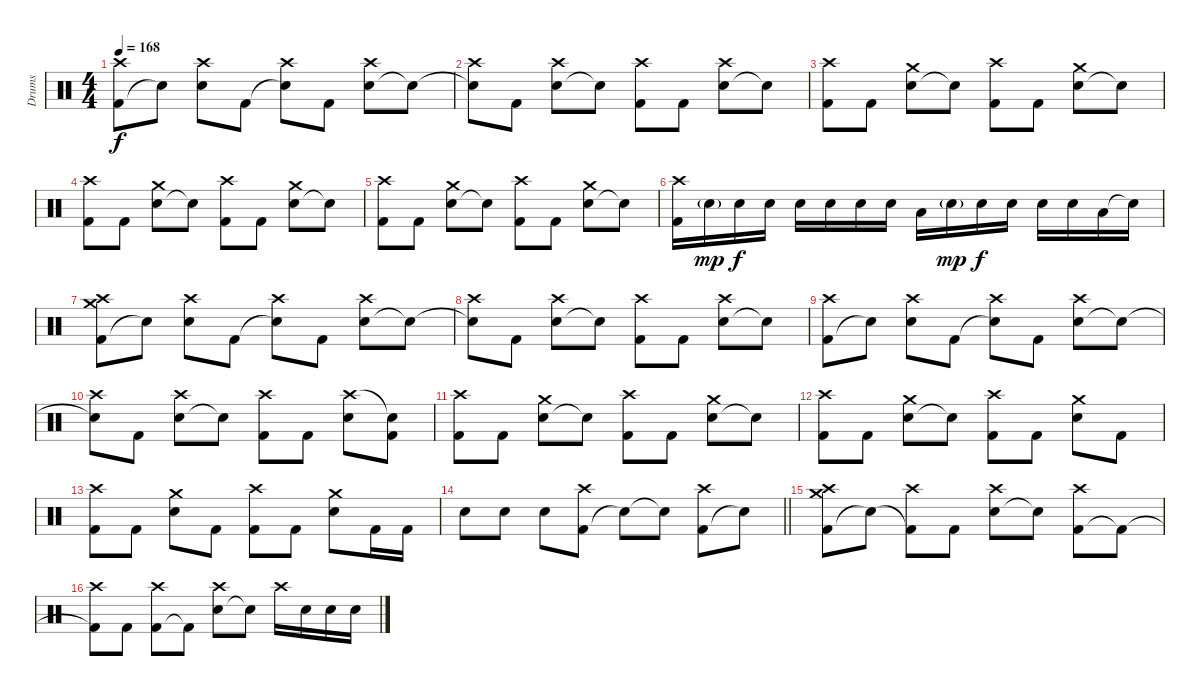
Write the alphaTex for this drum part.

\track ("Drums" "Drums") {instrument percussion}
\staff {score}
\articulation defaults
\ts (4 4)
\tempo 168
\clef neutral
\ks c
("Kick (hit) 2" "Crash high (hit)").8{dy f} "Snare (hit)"{t}.8 ("Electric Snare (hit)" "Crash high (hit)").8 "Kick (hit) 2".8 ("Snare (hit)"{t} "Crash high (hit)").8 "Kick (hit) 2".8 ("Electric Snare (hit)" "Crash high (hit)").8 "Snare (hit)"{t}.8 |
("Snare (hit)"{t} "Crash high (hit)").8 "Kick (hit) 2".8 ("Electric Snare (hit)" "Crash high (hit)").8 "Snare (hit)"{t}.8 ("Kick (hit) 2" "Crash high (hit)").8 "Kick (hit) 2".8 ("Electric Snare (hit)" "Crash high (hit)").8 "Snare (hit)"{t}.8 |
("Kick (hit) 2" "Crash high (hit)").8 "Kick (hit) 2".8 ("Electric Snare (hit)" "Crash medium (hit)").8 "Snare (hit)"{t}.8 ("Kick (hit) 2" "Crash high (hit)").8 "Kick (hit) 2".8 ("Electric Snare (hit)" "Crash medium (hit)").8 "Snare (hit)"{t}.8 |
("Kick (hit) 2" "Crash high (hit)").8 "Kick (hit) 2".8 ("Electric Snare (hit)" "Crash medium (hit)").8 "Snare (hit)"{t}.8 ("Kick (hit) 2" "Crash high (hit)").8 "Kick (hit) 2".8 ("Electric Snare (hit)" "Crash medium (hit)").8 "Snare (hit)"{t}.8 |
("Kick (hit) 2" "Crash high (hit)").8 "Kick (hit) 2".8 ("Electric Snare (hit)" "Crash medium (hit)").8 "Snare (hit)"{t}.8 ("Kick (hit) 2" "Crash high (hit)").8 "Kick (hit) 2".8 ("Electric Snare (hit)" "Crash medium (hit)").8 "Snare (hit)"{t}.8 |
("Kick (hit) 2" "Crash high (hit)").16 "Electric Snare (hit)"{g}.16{dy mp} "Electric Snare (hit)".16{dy f} "Electric Snare (hit)".16 "Electric Snare (hit)".16 "Electric Snare (hit)".16 "Electric Snare (hit)".16 "Electric Snare (hit)".16 "Low Tom (hit)".16 "Electric Snare (hit)"{g}.16{dy mp} "Electric Snare (hit)".16{dy f} "Electric Snare (hit)".16 "Electric Snare (hit)".16 "Electric Snare (hit)".16 "Low Floor Tom (hit)".16 "Electric Snare (hit)"{t}.16 |
("Kick (hit) 2" "Crash medium (hit)" "Crash high (hit)").8 "Snare (hit)"{t}.8 ("Electric Snare (hit)" "Crash high (hit)").8 "Kick (hit) 2".8 ("Snare (hit)"{t} "Crash high (hit)").8 "Kick (hit) 2".8 ("Electric Snare (hit)" "Crash high (hit)").8 "Snare (hit)"{t}.8 |
("Snare (hit)"{t} "Crash high (hit)").8 "Kick (hit) 2".8 ("Electric Snare (hit)" "Crash high (hit)").8 "Snare (hit)"{t}.8 ("Kick (hit) 2" "Crash high (hit)").8 "Kick (hit) 2".8 ("Electric Snare (hit)" "Crash high (hit)").8 "Snare (hit)"{t}.8 |
("Kick (hit) 2" "Crash high (hit)").8 "Snare (hit)"{t}.8 ("Electric Snare (hit)" "Crash high (hit)").8 "Kick (hit) 2".8 ("Snare (hit)"{t} "Crash high (hit)").8 "Kick (hit) 2".8 ("Electric Snare (hit)" "Crash high (hit)").8 "Snare (hit)"{t}.8 |
("Snare (hit)"{t} "Crash high (hit)").8 "Kick (hit) 2".8 ("Electric Snare (hit)" "Crash high (hit)").8 "Snare (hit)"{t}.8 ("Kick (hit) 2" "Crash high (hit)").8 "Kick (hit) 2".8 ("Electric Snare (hit)" "Crash high (hit)").8 ("Kick (hit) 2" "Snare (hit)"{t}).8 |
("Kick (hit) 2" "Crash high (hit)").8 "Kick (hit) 2".8 ("Electric Snare (hit)" "Crash medium (hit)").8 "Snare (hit)"{t}.8 ("Kick (hit) 2" "Crash high (hit)").8 "Kick (hit) 2".8 ("Electric Snare (hit)" "Crash medium (hit)").8 "Snare (hit)"{t}.8 |
("Kick (hit) 2" "Crash high (hit)").8 "Kick (hit) 2".8 ("Electric Snare (hit)" "Crash medium (hit)").8 "Snare (hit)"{t}.8 ("Kick (hit) 2" "Crash high (hit)").8 "Kick (hit) 2".8 ("Electric Snare (hit)" "Crash medium (hit)").8 "Kick (hit) 2".8 |
("Kick (hit) 2" "Crash high (hit)").8 "Kick (hit) 2".8 ("Electric Snare (hit)" "Crash medium (hit)").8 "Kick (hit) 2".8 ("Kick (hit) 2" "Crash high (hit)").8 "Kick (hit) 2".8 ("Electric Snare (hit)" "Crash medium (hit)").8 "Kick (hit) 2".16 "Kick (hit) 2".16 |
\barLineRight lightlight "Electric Snare (hit)".8 "Electric Snare (hit)".8 "Electric Snare (hit)".8
("Kick (hit) 2" "Crash high (hit)").8 "Snare (hit)"{t}.8 "Snare (hit)"{t}.8 ("Kick (hit) 2" "Crash high (hit)").8 "Snare (hit)"{t}.8 |
("Kick (hit) 2" "Crash medium (hit)" "Crash high (hit)").8 "Snare (hit)"{t}.8 ("Kick (hit) 2"{t} "Crash high (hit)").8 "Kick (hit) 2".8 ("Electric Snare (hit)" "Crash high (hit)").8 "Snare (hit)"{t}.8 ("Kick (hit) 2" "Crash high (hit)").8 "Kick (hit) 2"{t}.8 |
("Kick (hit) 2"{t} "Crash high (hit)").8 "Kick (hit) 2".8 ("Kick (hit) 2" "Crash high (hit)").8 "Kick (hit) 2"{t}.8 ("Electric Snare (hit)" "Crash high (hit)").8 "Snare (hit)"{t}.8 "Crash high (hit)".16 "Electric Snare (hit)".16 "Electric Snare (hit)".16 "Electric Snare (hit)".16
